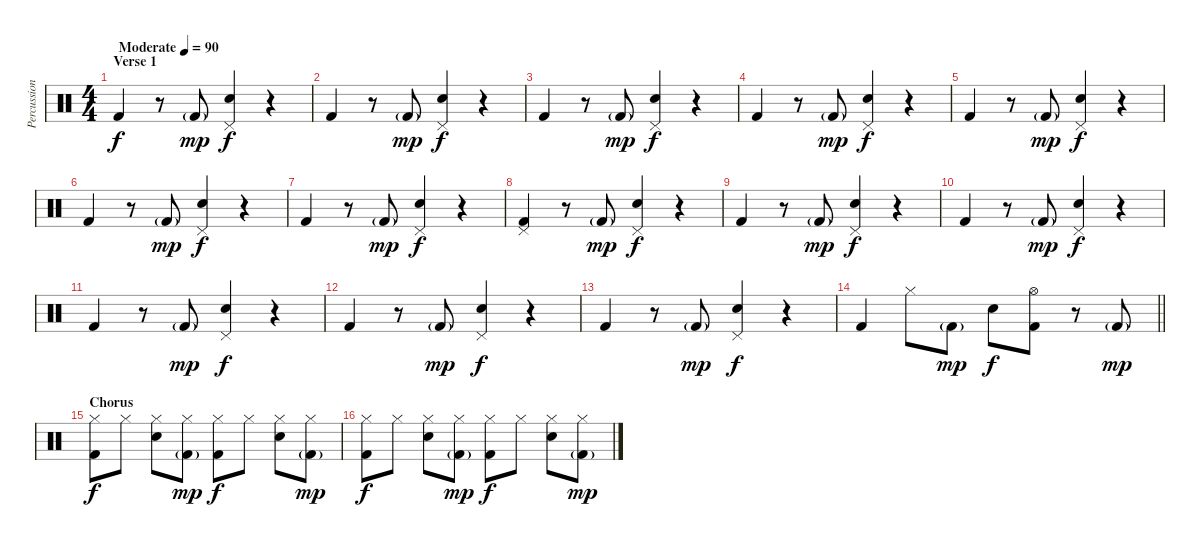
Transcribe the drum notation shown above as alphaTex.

\track ("Percussion" "Percussion") {instrument percussion}
\staff {score}
\articulation defaults
\ts (4 4)
\section ("" "Verse 1")
\tempo (90 "Moderate")
\clef neutral
\ks c "Kick (hit) 2".4{dy f}
r.8 "Kick (hit) 2"{g}.8{dy mp} ("Pedal Hi-Hat (hit)" "Snare (hit) 2").4{dy f} r.4 |
"Kick (hit) 2".4 r.8 "Kick (hit) 2"{g}.8{dy mp} ("Pedal Hi-Hat (hit)" "Snare (hit) 2").4{dy f} r.4 |
"Kick (hit) 2".4 r.8 "Kick (hit) 2"{g}.8{dy mp} ("Pedal Hi-Hat (hit)" "Snare (hit) 2").4{dy f} r.4 |
"Kick (hit) 2".4 r.8 "Kick (hit) 2"{g}.8{dy mp} ("Pedal Hi-Hat (hit)" "Snare (hit) 2").4{dy f} r.4 |
"Kick (hit) 2".4 r.8 "Kick (hit) 2"{g}.8{dy mp} ("Pedal Hi-Hat (hit)" "Snare (hit) 2").4{dy f} r.4 |
"Kick (hit) 2".4 r.8 "Kick (hit) 2"{g}.8{dy mp} ("Pedal Hi-Hat (hit)" "Snare (hit) 2").4{dy f} r.4 |
"Kick (hit) 2".4 r.8 "Kick (hit) 2"{g}.8{dy mp} ("Pedal Hi-Hat (hit)" "Snare (hit) 2").4{dy f} r.4 |
("Pedal Hi-Hat (hit)" "Kick (hit) 2").4 r.8 "Kick (hit) 2"{g}.8{dy mp} ("Pedal Hi-Hat (hit)" "Snare (hit) 2").4{dy f} r.4 |
"Kick (hit) 2".4 r.8 "Kick (hit) 2"{g}.8{dy mp} ("Pedal Hi-Hat (hit)" "Snare (hit) 2").4{dy f} r.4 |
"Kick (hit) 2".4 r.8 "Kick (hit) 2"{g}.8{dy mp} ("Pedal Hi-Hat (hit)" "Snare (hit) 2").4{dy f} r.4 |
"Kick (hit) 2".4 r.8 "Kick (hit) 2"{g}.8{dy mp} ("Pedal Hi-Hat (hit)" "Snare (hit) 2").4{dy f} r.4 |
"Kick (hit) 2".4 r.8 "Kick (hit) 2"{g}.8{dy mp} ("Pedal Hi-Hat (hit)" "Snare (hit) 2").4{dy f} r.4 |
"Kick (hit) 2".4 r.8 "Kick (hit) 2"{g}.8{dy mp} ("Pedal Hi-Hat (hit)" "Snare (hit) 2").4{dy f} r.4 |
\barLineRight lightlight "Kick (hit) 2".4 "Hi-Hat (closed)".8 "Kick (hit) 2"{g}.8{dy mp} "Snare (hit) 2".8{dy f}
("Hi-Hat (open)" "Kick (hit) 2").8 r.8 "Kick (hit) 2"{g}.8{dy mp} |
\section ("" "Chorus")
("Hi-Hat (closed)" "Kick (hit) 2").8{dy f} "Hi-Hat (closed)".8 ("Hi-Hat (closed)" "Snare (hit) 2").8 ("Hi-Hat (closed)" "Kick (hit) 2"{g}).8{dy mp} ("Hi-Hat (closed)" "Kick (hit) 2").8{dy f} "Hi-Hat (closed)".8 ("Hi-Hat (closed)" "Snare (hit) 2").8 ("Hi-Hat (closed)" "Kick (hit) 2"{g}).8{dy mp} |
("Hi-Hat (closed)" "Kick (hit) 2").8{dy f} "Hi-Hat (closed)".8 ("Hi-Hat (closed)" "Snare (hit) 2").8 ("Hi-Hat (closed)" "Kick (hit) 2"{g}).8{dy mp} ("Hi-Hat (closed)" "Kick (hit) 2").8{dy f} "Hi-Hat (closed)".8 ("Hi-Hat (closed)" "Snare (hit) 2").8 ("Hi-Hat (closed)" "Kick (hit) 2"{g}).8{dy mp}
